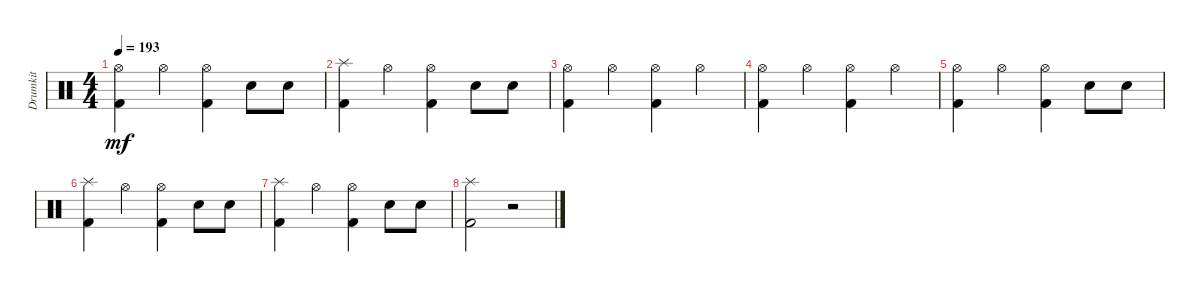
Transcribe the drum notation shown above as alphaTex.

\track ("Drumkit" "Drumkit") {instrument percussion}
\staff {score}
\articulation defaults
\ts (4 4)
\tempo 193
\clef neutral
\ks c
("Hi-Hat (open)" "Kick (hit) 2").4{dy mf} "Hi-Hat (open)".4 ("Hi-Hat (open)" "Kick (hit) 2").4 "Snare (hit) 2".8 "Snare (hit) 2".8 |
("Splash (hit)" "Kick (hit) 2").4 "Hi-Hat (open)".4 ("Hi-Hat (open)" "Kick (hit) 2").4 "Snare (hit) 2".8 "Snare (hit) 2".8 |
("Hi-Hat (open)" "Kick (hit) 2").4 "Hi-Hat (open)".4 ("Hi-Hat (open)" "Kick (hit) 2").4 "Hi-Hat (open)".4 |
("Hi-Hat (open)" "Kick (hit) 2").4 "Hi-Hat (open)".4 ("Hi-Hat (open)" "Kick (hit) 2").4 "Hi-Hat (open)".4 |
("Hi-Hat (open)" "Kick (hit) 2").4 "Hi-Hat (open)".4 ("Hi-Hat (open)" "Kick (hit) 2").4 "Snare (hit) 2".8 "Snare (hit) 2".8 |
("Splash (hit)" "Kick (hit) 2").4 "Hi-Hat (open)".4 ("Hi-Hat (open)" "Kick (hit) 2").4 "Snare (hit) 2".8 "Snare (hit) 2".8 |
("Splash (hit)" "Kick (hit) 2").4 "Hi-Hat (open)".4 ("Hi-Hat (open)" "Kick (hit) 2").4 "Snare (hit) 2".8 "Snare (hit) 2".8 |
("Splash (hit)" "Kick (hit) 2").2 r.2
